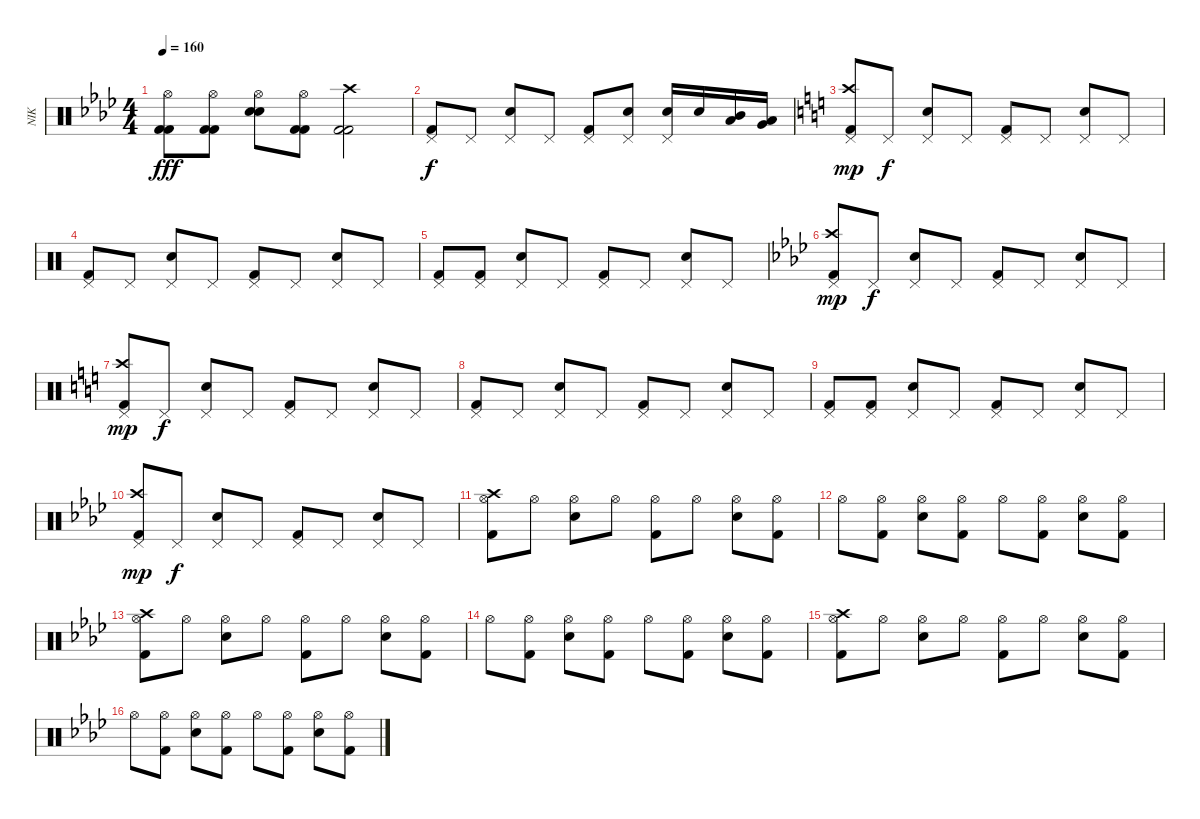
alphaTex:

\track ("NIK" "NIK") {instrument percussion}
\staff {score}
\articulation defaults
\ts (4 4)
\tempo 160
\clef neutral
\ks ab
("Hi-Hat (open)" "Kick (hit) 2" "Kick (hit) 2").8{dy fff} ("Hi-Hat (open)" "Kick (hit) 2" "Kick (hit) 2").8 ("Hi-Hat (open)" "Electric Snare (hit)" "Electric Snare (hit)").8 ("Hi-Hat (open)" "Kick (hit) 2" "Kick (hit) 2").8 ("Crash high (hit)" "Kick (hit) 2" "Kick (hit) 2").2 |
("Kick (hit) 2" "Pedal Hi-Hat (hit)").8{dy f} "Pedal Hi-Hat (hit)".8 ("Snare (hit) 2" "Pedal Hi-Hat (hit)").8 "Pedal Hi-Hat (hit)".8 ("Pedal Hi-Hat (hit)" "Kick (hit) 2").8 ("Snare (hit) 2" "Pedal Hi-Hat (hit)").8 ("Snare (hit) 2" "Pedal Hi-Hat (hit)").16 "Snare (hit) 2".16 ("Mid Tom (hit)" "Low Tom (hit)").16 ("Low Floor Tom (hit)" "Very Low Tom (hit)").16 |
\ks c
("Kick (hit) 2" "Crash high (hit)" "Pedal Hi-Hat (hit)").8{dy mp} "Pedal Hi-Hat (hit)".8{dy f} ("Snare (hit) 2" "Pedal Hi-Hat (hit)").8 "Pedal Hi-Hat (hit)".8 ("Pedal Hi-Hat (hit)" "Kick (hit) 2").8 "Pedal Hi-Hat (hit)".8 ("Snare (hit) 2" "Pedal Hi-Hat (hit)").8 "Pedal Hi-Hat (hit)".8 |
("Kick (hit) 2" "Pedal Hi-Hat (hit)").8 "Pedal Hi-Hat (hit)".8 ("Pedal Hi-Hat (hit)" "Snare (hit) 2").8 "Pedal Hi-Hat (hit)".8 ("Kick (hit) 2" "Pedal Hi-Hat (hit)").8 "Pedal Hi-Hat (hit)".8 ("Snare (hit) 2" "Pedal Hi-Hat (hit)").8 "Pedal Hi-Hat (hit)".8 |
("Kick (hit) 2" "Pedal Hi-Hat (hit)").8 ("Kick (hit) 2" "Pedal Hi-Hat (hit)").8 ("Snare (hit) 2" "Pedal Hi-Hat (hit)").8 "Pedal Hi-Hat (hit)".8 ("Kick (hit) 2" "Pedal Hi-Hat (hit)").8 "Pedal Hi-Hat (hit)".8 ("Pedal Hi-Hat (hit)" "Snare (hit) 2").8 "Pedal Hi-Hat (hit)".8 |
\ks ab
("Kick (hit) 2" "Crash high (hit)" "Pedal Hi-Hat (hit)").8{dy mp} "Pedal Hi-Hat (hit)".8{dy f} ("Snare (hit) 2" "Pedal Hi-Hat (hit)").8 "Pedal Hi-Hat (hit)".8 ("Pedal Hi-Hat (hit)" "Kick (hit) 2").8 "Pedal Hi-Hat (hit)".8 ("Snare (hit) 2" "Pedal Hi-Hat (hit)").8 "Pedal Hi-Hat (hit)".8 |
\ks c
("Kick (hit) 2" "Crash high (hit)" "Pedal Hi-Hat (hit)").8{dy mp} "Pedal Hi-Hat (hit)".8{dy f} ("Snare (hit) 2" "Pedal Hi-Hat (hit)").8 "Pedal Hi-Hat (hit)".8 ("Pedal Hi-Hat (hit)" "Kick (hit) 2").8 "Pedal Hi-Hat (hit)".8 ("Snare (hit) 2" "Pedal Hi-Hat (hit)").8 "Pedal Hi-Hat (hit)".8 |
("Kick (hit) 2" "Pedal Hi-Hat (hit)").8 "Pedal Hi-Hat (hit)".8 ("Pedal Hi-Hat (hit)" "Snare (hit) 2").8 "Pedal Hi-Hat (hit)".8 ("Kick (hit) 2" "Pedal Hi-Hat (hit)").8 "Pedal Hi-Hat (hit)".8 ("Snare (hit) 2" "Pedal Hi-Hat (hit)").8 "Pedal Hi-Hat (hit)".8 |
("Kick (hit) 2" "Pedal Hi-Hat (hit)").8 ("Kick (hit) 2" "Pedal Hi-Hat (hit)").8 ("Snare (hit) 2" "Pedal Hi-Hat (hit)").8 "Pedal Hi-Hat (hit)".8 ("Kick (hit) 2" "Pedal Hi-Hat (hit)").8 "Pedal Hi-Hat (hit)".8 ("Pedal Hi-Hat (hit)" "Snare (hit) 2").8 "Pedal Hi-Hat (hit)".8 |
\ks ab
("Kick (hit) 2" "Crash high (hit)" "Pedal Hi-Hat (hit)").8{dy mp} "Pedal Hi-Hat (hit)".8{dy f} ("Snare (hit) 2" "Pedal Hi-Hat (hit)").8 "Pedal Hi-Hat (hit)".8 ("Pedal Hi-Hat (hit)" "Kick (hit) 2").8 "Pedal Hi-Hat (hit)".8 ("Snare (hit) 2" "Pedal Hi-Hat (hit)").8 "Pedal Hi-Hat (hit)".8 |
("Crash high (hit)" "Hi-Hat (open)" "Kick (hit) 2").8 "Hi-Hat (open)".8 ("Hi-Hat (open)" "Electric Snare (hit)").8 "Hi-Hat (open)".8 ("Hi-Hat (open)" "Kick (hit) 2").8 "Hi-Hat (open)".8 ("Hi-Hat (open)" "Electric Snare (hit)").8 ("Hi-Hat (open)" "Kick (hit) 2").8 |
"Hi-Hat (open)".8 ("Hi-Hat (open)" "Kick (hit) 2").8 ("Hi-Hat (open)" "Electric Snare (hit)").8 ("Hi-Hat (open)" "Kick (hit) 2").8 "Hi-Hat (open)".8 ("Hi-Hat (open)" "Kick (hit) 2").8 ("Hi-Hat (open)" "Electric Snare (hit)").8 ("Hi-Hat (open)" "Kick (hit) 2").8 |
("Crash high (hit)" "Hi-Hat (open)" "Kick (hit) 2").8 "Hi-Hat (open)".8 ("Hi-Hat (open)" "Electric Snare (hit)").8 "Hi-Hat (open)".8 ("Hi-Hat (open)" "Kick (hit) 2").8 "Hi-Hat (open)".8 ("Hi-Hat (open)" "Electric Snare (hit)").8 ("Hi-Hat (open)" "Kick (hit) 2").8 |
"Hi-Hat (open)".8 ("Hi-Hat (open)" "Kick (hit) 2").8 ("Hi-Hat (open)" "Electric Snare (hit)").8 ("Hi-Hat (open)" "Kick (hit) 2").8 "Hi-Hat (open)".8 ("Hi-Hat (open)" "Kick (hit) 2").8 ("Hi-Hat (open)" "Electric Snare (hit)").8 ("Hi-Hat (open)" "Kick (hit) 2").8 |
("Crash high (hit)" "Hi-Hat (open)" "Kick (hit) 2").8 "Hi-Hat (open)".8 ("Hi-Hat (open)" "Electric Snare (hit)").8 "Hi-Hat (open)".8 ("Hi-Hat (open)" "Kick (hit) 2").8 "Hi-Hat (open)".8 ("Hi-Hat (open)" "Electric Snare (hit)").8 ("Hi-Hat (open)" "Kick (hit) 2").8 |
"Hi-Hat (open)".8 ("Hi-Hat (open)" "Kick (hit) 2").8 ("Hi-Hat (open)" "Electric Snare (hit)").8 ("Hi-Hat (open)" "Kick (hit) 2").8 "Hi-Hat (open)".8 ("Hi-Hat (open)" "Kick (hit) 2").8 ("Hi-Hat (open)" "Electric Snare (hit)").8 ("Hi-Hat (open)" "Kick (hit) 2").8
